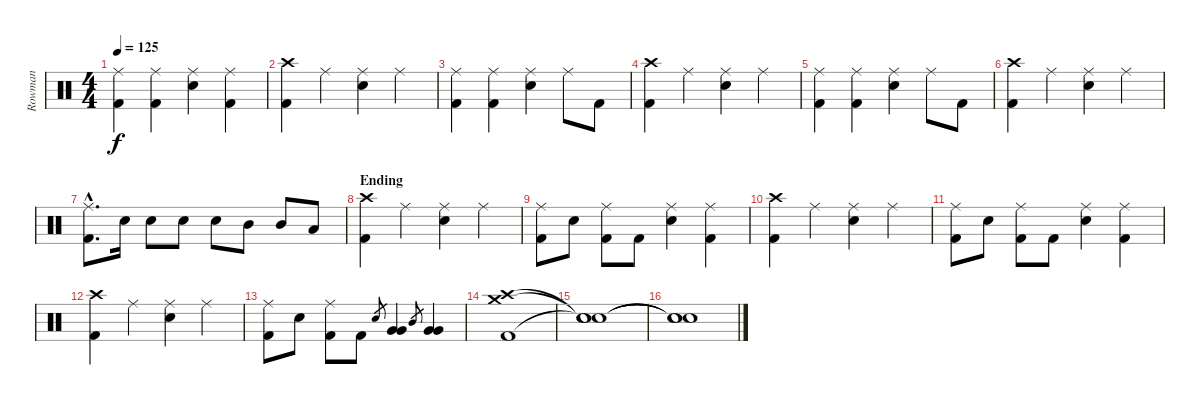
\track ("Rowman" "Rowman") {instrument percussion}
\staff {score}
\articulation defaults
\ts (4 4)
\tempo 125
\clef neutral
\ks c
("Kick (hit) 2" "Ride (middle)").4{dy f} ("Kick (hit) 2" "Ride (middle)").4 ("Electric Snare (hit)" "Ride (middle)").4 ("Kick (hit) 2" "Ride (middle)").4 |
("Kick (hit) 2" "Crash high (hit)").4 "Ride (middle)".4 ("Electric Snare (hit)" "Ride (middle)").4 "Ride (middle)".4 |
("Kick (hit) 2" "Ride (middle)").4 ("Kick (hit) 2" "Ride (middle)").4 ("Electric Snare (hit)" "Ride (middle)").4 "Ride (middle)".8 "Kick (hit) 2".8 |
("Kick (hit) 2" "Crash high (hit)").4 "Ride (middle)".4 ("Electric Snare (hit)" "Ride (middle)").4 "Ride (middle)".4 |
("Kick (hit) 2" "Ride (middle)").4 ("Kick (hit) 2" "Ride (middle)").4 ("Electric Snare (hit)" "Ride (middle)").4 "Ride (middle)".8 "Kick (hit) 2".8 |
("Kick (hit) 2" "Crash high (hit)").4 "Ride (middle)".4 ("Electric Snare (hit)" "Ride (middle)").4 "Ride (middle)".4 |
("Kick (hit) 2"{hac} "Ride (middle)"{hac}).8{d} "Electric Snare (hit)".16 "Electric Snare (hit)".8 "Electric Snare (hit)".8 "Electric Snare (hit)".8 "Mid Tom (hit)".8 "Mid Tom (hit)".8 "Low Tom (hit)".8 |
\section ("" "Ending")
("Kick (hit) 2" "Crash high (hit)").4 "Ride (middle)".4 ("Electric Snare (hit)" "Ride (middle)").4 "Ride (middle)".4 |
("Kick (hit) 2" "Ride (middle)").8 "Electric Snare (hit)".8 ("Kick (hit) 2" "Ride (middle)").8 "Kick (hit) 2".8 ("Electric Snare (hit)" "Ride (middle)").4 ("Kick (hit) 2" "Ride (middle)").4 |
("Kick (hit) 2" "Crash high (hit)").4 "Ride (middle)".4 ("Electric Snare (hit)" "Ride (middle)").4 "Ride (middle)".4 |
("Kick (hit) 2" "Ride (middle)").8 "Electric Snare (hit)".8 ("Kick (hit) 2" "Ride (middle)").8 "Kick (hit) 2".8 ("Electric Snare (hit)" "Ride (middle)").4 ("Kick (hit) 2" "Ride (middle)").4 |
("Kick (hit) 2" "Crash high (hit)").4 "Ride (middle)".4 ("Electric Snare (hit)" "Ride (middle)").4 "Ride (middle)".4 |
("Kick (hit) 2" "Ride (middle)").8 "Electric Snare (hit)".8 ("Kick (hit) 2" "Ride (middle)").8 "Kick (hit) 2".8 "Electric Snare (hit)".8{gr} ("Very Low Tom (hit)" "Very Low Tom (hit)").4 "Mid Tom (hit)".8{gr} ("Very Low Tom (hit)" "Very Low Tom (hit)").4 |
("Kick (hit) 2" "Crash high (hit)" "Crash medium (hit)").1 |
("Snare (hit)"{t} "Snare (hit)"{t} "Snare (hit)"{t}).1 |
("Snare (hit)"{t} "Snare (hit)"{t} "Snare (hit)"{t}).1
